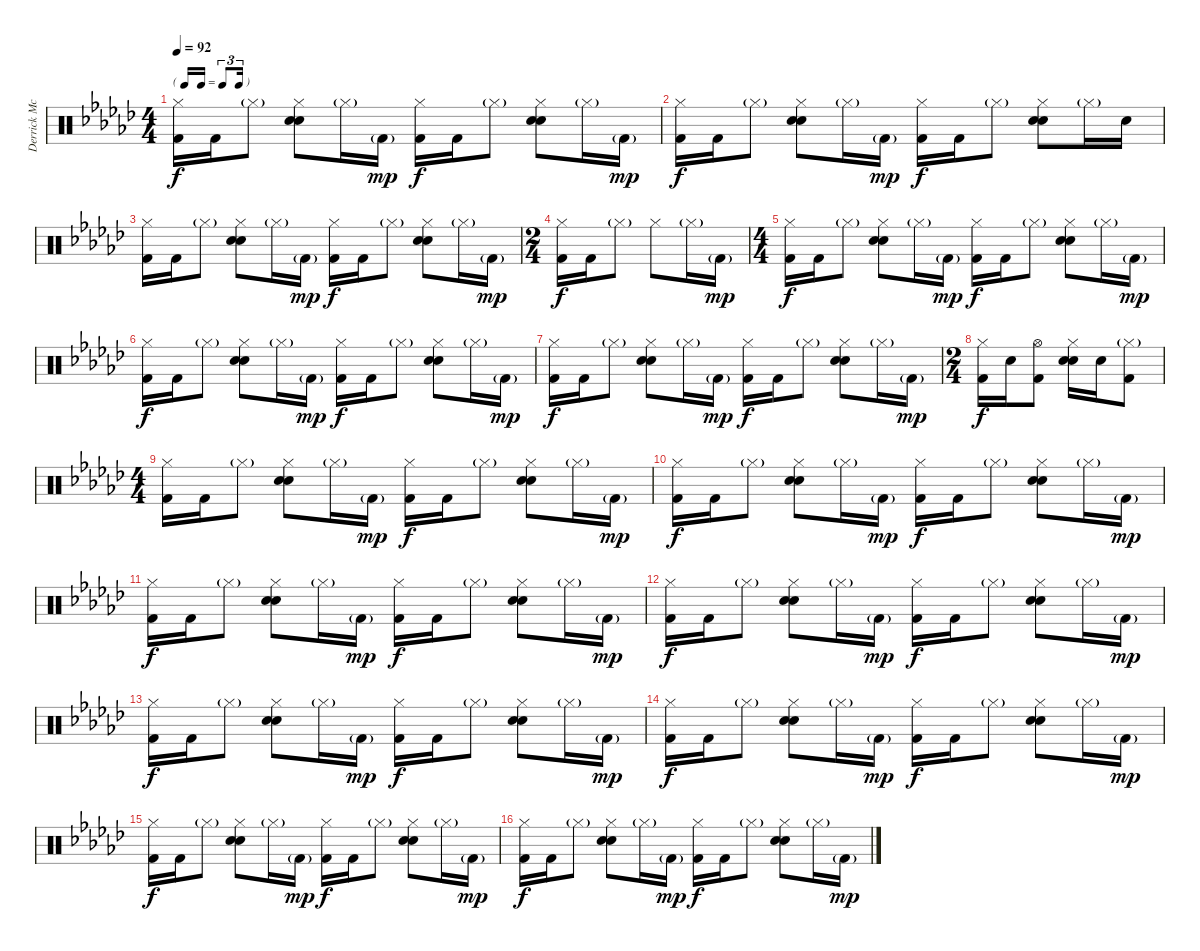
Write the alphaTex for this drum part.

\track ("Derrick McKenzie" "Derrick Mc") {instrument percussion}
\staff {score}
\articulation defaults
\ts (4 4)
\tf triplet16th
\tempo 92
\clef neutral
\ks ebminor
("Hi-Hat (closed)" "Kick (hit) 2").16{dy f} "Kick (hit) 2".16 "Hi-Hat (closed)"{g}.8 ("Hi-Hat (closed)" "Hand Clap (hit)" "Electric Snare (hit)").8 "Hi-Hat (closed)"{g}.16 "Kick (hit) 2"{g}.16{dy mp} ("Hi-Hat (closed)" "Kick (hit) 2").16{dy f} "Kick (hit) 2".16 "Hi-Hat (closed)"{g}.8 ("Hi-Hat (closed)" "Hand Clap (hit)" "Electric Snare (hit)").8 "Hi-Hat (closed)"{g}.16 "Kick (hit) 2"{g}.16{dy mp} |
("Hi-Hat (closed)" "Kick (hit) 2").16{dy f} "Kick (hit) 2".16 "Hi-Hat (closed)"{g}.8 ("Hi-Hat (closed)" "Hand Clap (hit)" "Electric Snare (hit)").8 "Hi-Hat (closed)"{g}.16 "Kick (hit) 2"{g}.16{dy mp} ("Hi-Hat (closed)" "Kick (hit) 2").16{dy f} "Kick (hit) 2".16 "Hi-Hat (closed)"{g}.8 ("Hi-Hat (closed)" "Hand Clap (hit)" "Electric Snare (hit)").8 "Hi-Hat (closed)"{g}.16 "Electric Snare (hit)".16 |
("Hi-Hat (closed)" "Kick (hit) 2").16 "Kick (hit) 2".16 "Hi-Hat (closed)"{g}.8 ("Hi-Hat (closed)" "Hand Clap (hit)" "Electric Snare (hit)").8 "Hi-Hat (closed)"{g}.16 "Kick (hit) 2"{g}.16{dy mp} ("Hi-Hat (closed)" "Kick (hit) 2").16{dy f} "Kick (hit) 2".16 "Hi-Hat (closed)"{g}.8 ("Hi-Hat (closed)" "Hand Clap (hit)" "Electric Snare (hit)").8 "Hi-Hat (closed)"{g}.16 "Kick (hit) 2"{g}.16{dy mp} |
\ts (2 4)
("Hi-Hat (closed)" "Kick (hit) 2").16{dy f} "Kick (hit) 2".16 "Hi-Hat (closed)"{g}.8 "Hi-Hat (closed)".8 "Hi-Hat (closed)"{g}.16 "Kick (hit) 2"{g}.16{dy mp} |
\ts (4 4)
("Hi-Hat (closed)" "Kick (hit) 2").16{dy f} "Kick (hit) 2".16 "Hi-Hat (closed)"{g}.8 ("Hi-Hat (closed)" "Hand Clap (hit)" "Electric Snare (hit)").8 "Hi-Hat (closed)"{g}.16 "Kick (hit) 2"{g}.16{dy mp} ("Hi-Hat (closed)" "Kick (hit) 2").16{dy f} "Kick (hit) 2".16 "Hi-Hat (closed)"{g}.8 ("Hi-Hat (closed)" "Hand Clap (hit)" "Electric Snare (hit)").8 "Hi-Hat (closed)"{g}.16 "Kick (hit) 2"{g}.16{dy mp} |
("Hi-Hat (closed)" "Kick (hit) 2").16{dy f} "Kick (hit) 2".16 "Hi-Hat (closed)"{g}.8 ("Hi-Hat (closed)" "Hand Clap (hit)" "Electric Snare (hit)").8 "Hi-Hat (closed)"{g}.16 "Kick (hit) 2"{g}.16{dy mp} ("Hi-Hat (closed)" "Kick (hit) 2").16{dy f} "Kick (hit) 2".16 "Hi-Hat (closed)"{g}.8 ("Hi-Hat (closed)" "Hand Clap (hit)" "Electric Snare (hit)").8 "Hi-Hat (closed)"{g}.16 "Kick (hit) 2"{g}.16{dy mp} |
("Hi-Hat (closed)" "Kick (hit) 2").16{dy f} "Kick (hit) 2".16 "Hi-Hat (closed)"{g}.8 ("Hi-Hat (closed)" "Hand Clap (hit)" "Electric Snare (hit)").8 "Hi-Hat (closed)"{g}.16 "Kick (hit) 2"{g}.16{dy mp} ("Hi-Hat (closed)" "Kick (hit) 2").16{dy f} "Kick (hit) 2".16 "Hi-Hat (closed)"{g}.8 ("Hi-Hat (closed)" "Hand Clap (hit)" "Electric Snare (hit)").8 "Hi-Hat (closed)"{g}.16 "Kick (hit) 2"{g}.16{dy mp} |
\ts (2 4)
("Hi-Hat (closed)" "Kick (hit) 2").16{dy f} "Electric Snare (hit)".16 ("Hi-Hat (open)" "Kick (hit) 2").8 ("Hi-Hat (closed)" "Hand Clap (hit)" "Electric Snare (hit)").16 "Electric Snare (hit)".16 ("Hi-Hat (closed)"{g} "Kick (hit) 2").8 |
\ts (4 4)
("Hi-Hat (closed)" "Kick (hit) 2").16 "Kick (hit) 2".16 "Hi-Hat (closed)"{g}.8 ("Hi-Hat (closed)" "Hand Clap (hit)" "Electric Snare (hit)").8 "Hi-Hat (closed)"{g}.16 "Kick (hit) 2"{g}.16{dy mp} ("Hi-Hat (closed)" "Kick (hit) 2").16{dy f} "Kick (hit) 2".16 "Hi-Hat (closed)"{g}.8 ("Hi-Hat (closed)" "Hand Clap (hit)" "Electric Snare (hit)").8 "Hi-Hat (closed)"{g}.16 "Kick (hit) 2"{g}.16{dy mp} |
("Hi-Hat (closed)" "Kick (hit) 2").16{dy f} "Kick (hit) 2".16 "Hi-Hat (closed)"{g}.8 ("Hi-Hat (closed)" "Hand Clap (hit)" "Electric Snare (hit)").8 "Hi-Hat (closed)"{g}.16 "Kick (hit) 2"{g}.16{dy mp} ("Hi-Hat (closed)" "Kick (hit) 2").16{dy f} "Kick (hit) 2".16 "Hi-Hat (closed)"{g}.8 ("Hi-Hat (closed)" "Hand Clap (hit)" "Electric Snare (hit)").8 "Hi-Hat (closed)"{g}.16 "Kick (hit) 2"{g}.16{dy mp} |
("Hi-Hat (closed)" "Kick (hit) 2").16{dy f} "Kick (hit) 2".16 "Hi-Hat (closed)"{g}.8 ("Hi-Hat (closed)" "Hand Clap (hit)" "Electric Snare (hit)").8 "Hi-Hat (closed)"{g}.16 "Kick (hit) 2"{g}.16{dy mp} ("Hi-Hat (closed)" "Kick (hit) 2").16{dy f} "Kick (hit) 2".16 "Hi-Hat (closed)"{g}.8 ("Hi-Hat (closed)" "Hand Clap (hit)" "Electric Snare (hit)").8 "Hi-Hat (closed)"{g}.16 "Kick (hit) 2"{g}.16{dy mp} |
("Hi-Hat (closed)" "Kick (hit) 2").16{dy f} "Kick (hit) 2".16 "Hi-Hat (closed)"{g}.8 ("Hi-Hat (closed)" "Hand Clap (hit)" "Electric Snare (hit)").8 "Hi-Hat (closed)"{g}.16 "Kick (hit) 2"{g}.16{dy mp} ("Hi-Hat (closed)" "Kick (hit) 2").16{dy f} "Kick (hit) 2".16 "Hi-Hat (closed)"{g}.8 ("Hi-Hat (closed)" "Hand Clap (hit)" "Electric Snare (hit)").8 "Hi-Hat (closed)"{g}.16 "Kick (hit) 2"{g}.16{dy mp} |
("Hi-Hat (closed)" "Kick (hit) 2").16{dy f} "Kick (hit) 2".16 "Hi-Hat (closed)"{g}.8 ("Hi-Hat (closed)" "Hand Clap (hit)" "Electric Snare (hit)").8 "Hi-Hat (closed)"{g}.16 "Kick (hit) 2"{g}.16{dy mp} ("Hi-Hat (closed)" "Kick (hit) 2").16{dy f} "Kick (hit) 2".16 "Hi-Hat (closed)"{g}.8 ("Hi-Hat (closed)" "Hand Clap (hit)" "Electric Snare (hit)").8 "Hi-Hat (closed)"{g}.16 "Kick (hit) 2"{g}.16{dy mp} |
("Hi-Hat (closed)" "Kick (hit) 2").16{dy f} "Kick (hit) 2".16 "Hi-Hat (closed)"{g}.8 ("Hi-Hat (closed)" "Hand Clap (hit)" "Electric Snare (hit)").8 "Hi-Hat (closed)"{g}.16 "Kick (hit) 2"{g}.16{dy mp} ("Hi-Hat (closed)" "Kick (hit) 2").16{dy f} "Kick (hit) 2".16 "Hi-Hat (closed)"{g}.8 ("Hi-Hat (closed)" "Hand Clap (hit)" "Electric Snare (hit)").8 "Hi-Hat (closed)"{g}.16 "Kick (hit) 2"{g}.16{dy mp} |
("Hi-Hat (closed)" "Kick (hit) 2").16{dy f} "Kick (hit) 2".16 "Hi-Hat (closed)"{g}.8 ("Hi-Hat (closed)" "Hand Clap (hit)" "Electric Snare (hit)").8 "Hi-Hat (closed)"{g}.16 "Kick (hit) 2"{g}.16{dy mp} ("Hi-Hat (closed)" "Kick (hit) 2").16{dy f} "Kick (hit) 2".16 "Hi-Hat (closed)"{g}.8 ("Hi-Hat (closed)" "Hand Clap (hit)" "Electric Snare (hit)").8 "Hi-Hat (closed)"{g}.16 "Kick (hit) 2"{g}.16{dy mp} |
("Hi-Hat (closed)" "Kick (hit) 2").16{dy f} "Kick (hit) 2".16 "Hi-Hat (closed)"{g}.8 ("Hi-Hat (closed)" "Hand Clap (hit)" "Electric Snare (hit)").8 "Hi-Hat (closed)"{g}.16 "Kick (hit) 2"{g}.16{dy mp} ("Hi-Hat (closed)" "Kick (hit) 2").16{dy f} "Kick (hit) 2".16 "Hi-Hat (closed)"{g}.8 ("Hi-Hat (closed)" "Hand Clap (hit)" "Electric Snare (hit)").8 "Hi-Hat (closed)"{g}.16 "Kick (hit) 2"{g}.16{dy mp}
